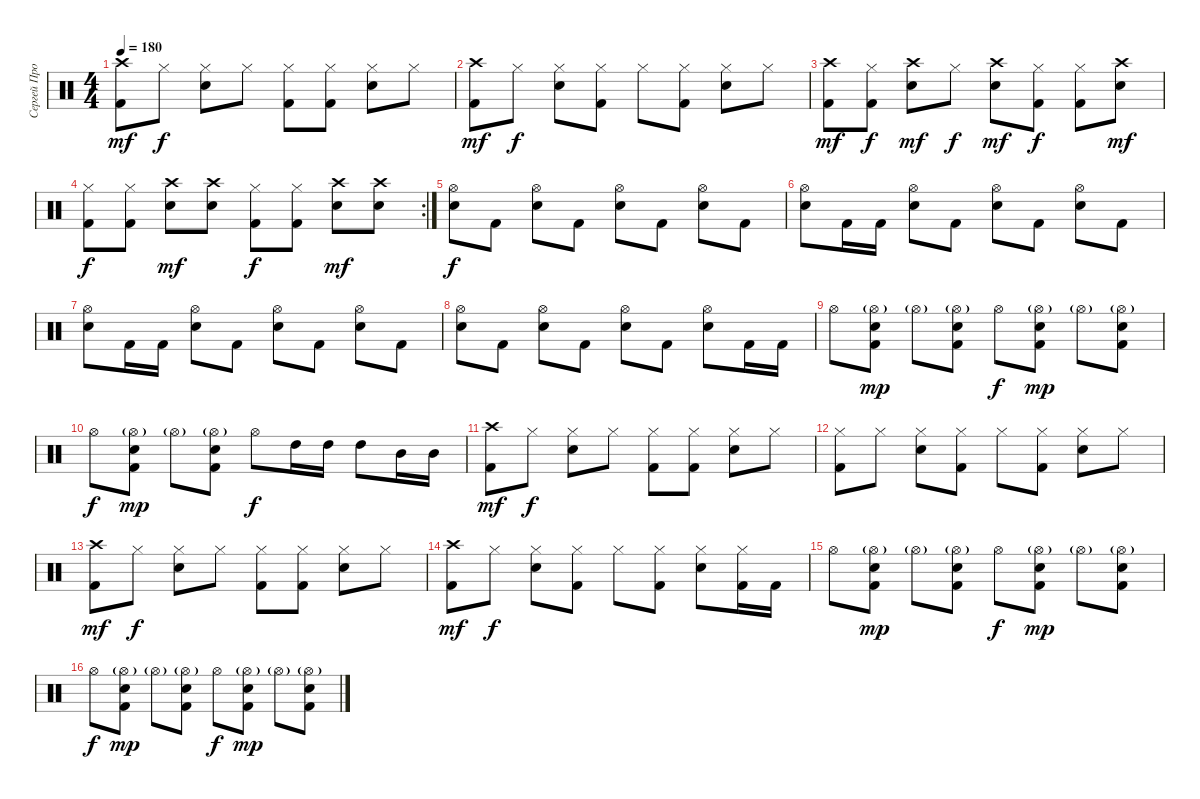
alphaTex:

\track ("Сергей Прокофьев" "Сергей Про") {instrument percussion}
\staff {score}
\articulation defaults
\ts (4 4)
\tempo 180
\clef neutral
\ks c
("Crash high (hit)" "Kick (hit) 2").8{dy mf} "Hi-Hat (closed)".8{dy f} ("Hi-Hat (closed)" "Snare (hit) 2").8 "Hi-Hat (closed)".8 ("Hi-Hat (closed)" "Kick (hit) 2").8 ("Hi-Hat (closed)" "Kick (hit) 2").8 ("Hi-Hat (closed)" "Snare (hit) 2").8 "Hi-Hat (closed)".8 |
("Crash high (hit)" "Kick (hit) 2").8{dy mf} "Hi-Hat (closed)".8{dy f} ("Hi-Hat (closed)" "Snare (hit) 2").8 ("Hi-Hat (closed)" "Kick (hit) 2").8 "Hi-Hat (closed)".8 ("Hi-Hat (closed)" "Kick (hit) 2").8 ("Hi-Hat (closed)" "Snare (hit) 2").8 "Hi-Hat (closed)".8 |
("Crash high (hit)" "Kick (hit) 2").8{dy mf} ("Hi-Hat (closed)" "Kick (hit) 2").8{dy f} ("Crash high (hit)" "Snare (hit) 2").8{dy mf} "Hi-Hat (closed)".8{dy f} ("Crash high (hit)" "Snare (hit) 2").8{dy mf} ("Hi-Hat (closed)" "Kick (hit) 2").8{dy f} ("Hi-Hat (closed)" "Kick (hit) 2").8 ("Crash high (hit)" "Snare (hit) 2").8{dy mf} |
\rc 2
("Hi-Hat (closed)" "Kick (hit) 2").8{dy f} ("Hi-Hat (closed)" "Kick (hit) 2").8 ("Crash high (hit)" "Snare (hit) 2").8{dy mf} ("Crash high (hit)" "Snare (hit) 2").8 ("Hi-Hat (closed)" "Kick (hit) 2").8{dy f} ("Hi-Hat (closed)" "Kick (hit) 2").8 ("Crash high (hit)" "Snare (hit) 2").8{dy mf} ("Crash high (hit)" "Snare (hit) 2").8 |
\section ("" "")
("Hi-Hat (open)" "Snare (hit) 2").8{dy f volume 15} "Kick (hit) 2".8 ("Hi-Hat (open)" "Snare (hit) 2").8 "Kick (hit) 2".8 ("Hi-Hat (open)" "Snare (hit) 2").8 "Kick (hit) 2".8 ("Hi-Hat (open)" "Snare (hit) 2").8 "Kick (hit) 2".8 |
("Hi-Hat (open)" "Snare (hit) 2").8 "Kick (hit) 2".16 "Kick (hit) 2".16 ("Hi-Hat (open)" "Snare (hit) 2").8 "Kick (hit) 2".8 ("Hi-Hat (open)" "Snare (hit) 2").8 "Kick (hit) 2".8 ("Hi-Hat (open)" "Snare (hit) 2").8 "Kick (hit) 2".8 |
("Hi-Hat (open)" "Snare (hit) 2").8 "Kick (hit) 2".16 "Kick (hit) 2".16 ("Hi-Hat (open)" "Snare (hit) 2").8 "Kick (hit) 2".8 ("Hi-Hat (open)" "Snare (hit) 2").8 "Kick (hit) 2".8 ("Hi-Hat (open)" "Snare (hit) 2").8 "Kick (hit) 2".8 |
("Hi-Hat (open)" "Snare (hit) 2").8 "Kick (hit) 2".8 ("Hi-Hat (open)" "Snare (hit) 2").8 "Kick (hit) 2".8 ("Hi-Hat (open)" "Snare (hit) 2").8 "Kick (hit) 2".8 ("Hi-Hat (open)" "Snare (hit) 2").8 "Kick (hit) 2".16 "Kick (hit) 2".16 |
"Hi-Hat (open)".8 ("Hi-Hat (open)"{g} "Snare (hit) 2" "Kick (hit) 2").8{dy mp} "Hi-Hat (open)"{g}.8 ("Hi-Hat (open)"{g} "Snare (hit) 2" "Kick (hit) 2").8 "Hi-Hat (open)".8{dy f} ("Hi-Hat (open)"{g} "Snare (hit) 2" "Kick (hit) 2").8{dy mp} "Hi-Hat (open)"{g}.8 ("Hi-Hat (open)"{g} "Snare (hit) 2" "Kick (hit) 2").8 |
"Hi-Hat (open)".8{dy f} ("Hi-Hat (open)"{g} "Snare (hit) 2" "Kick (hit) 2").8{dy mp} "Hi-Hat (open)"{g}.8 ("Hi-Hat (open)"{g} "Snare (hit) 2" "Kick (hit) 2").8 "Hi-Hat (open)".8{dy f} "High Tom (hit)".16 "High Tom (hit)".16 "High Tom (hit)".8 "Mid Tom (hit)".16 "Mid Tom (hit)".16 |
("Crash high (hit)" "Kick (hit) 2").8{dy mf} "Hi-Hat (closed)".8{dy f} ("Hi-Hat (closed)" "Snare (hit) 2").8 "Hi-Hat (closed)".8 ("Hi-Hat (closed)" "Kick (hit) 2").8 ("Hi-Hat (closed)" "Kick (hit) 2").8 ("Hi-Hat (closed)" "Snare (hit) 2").8 "Hi-Hat (closed)".8 |
("Hi-Hat (closed)" "Kick (hit) 2").8 "Hi-Hat (closed)".8 ("Hi-Hat (closed)" "Snare (hit) 2").8 ("Hi-Hat (closed)" "Kick (hit) 2").8 "Hi-Hat (closed)".8 ("Hi-Hat (closed)" "Kick (hit) 2").8 ("Hi-Hat (closed)" "Snare (hit) 2").8 "Hi-Hat (closed)".8 |
("Crash high (hit)" "Kick (hit) 2").8{dy mf} "Hi-Hat (closed)".8{dy f} ("Hi-Hat (closed)" "Snare (hit) 2").8 "Hi-Hat (closed)".8 ("Hi-Hat (closed)" "Kick (hit) 2").8 ("Hi-Hat (closed)" "Kick (hit) 2").8 ("Hi-Hat (closed)" "Snare (hit) 2").8 "Hi-Hat (closed)".8 |
("Crash high (hit)" "Kick (hit) 2").8{dy mf} "Hi-Hat (closed)".8{dy f} ("Hi-Hat (closed)" "Snare (hit) 2").8 ("Hi-Hat (closed)" "Kick (hit) 2").8 "Hi-Hat (closed)".8 ("Hi-Hat (closed)" "Kick (hit) 2").8 ("Hi-Hat (closed)" "Snare (hit) 2").8 ("Hi-Hat (closed)" "Kick (hit) 2").16 "Kick (hit) 2".16 |
"Hi-Hat (open)".8 ("Hi-Hat (open)"{g} "Snare (hit) 2" "Kick (hit) 2").8{dy mp} "Hi-Hat (open)"{g}.8 ("Hi-Hat (open)"{g} "Snare (hit) 2" "Kick (hit) 2").8 "Hi-Hat (open)".8{dy f} ("Hi-Hat (open)"{g} "Snare (hit) 2" "Kick (hit) 2").8{dy mp} "Hi-Hat (open)"{g}.8 ("Hi-Hat (open)"{g} "Snare (hit) 2" "Kick (hit) 2").8 |
"Hi-Hat (open)".8{dy f} ("Hi-Hat (open)"{g} "Snare (hit) 2" "Kick (hit) 2").8{dy mp} "Hi-Hat (open)"{g}.8 ("Hi-Hat (open)"{g} "Snare (hit) 2" "Kick (hit) 2").8 "Hi-Hat (open)".8{dy f} ("Hi-Hat (open)"{g} "Snare (hit) 2" "Kick (hit) 2").8{dy mp} "Hi-Hat (open)"{g}.8 ("Hi-Hat (open)"{g} "Snare (hit) 2" "Kick (hit) 2").8
